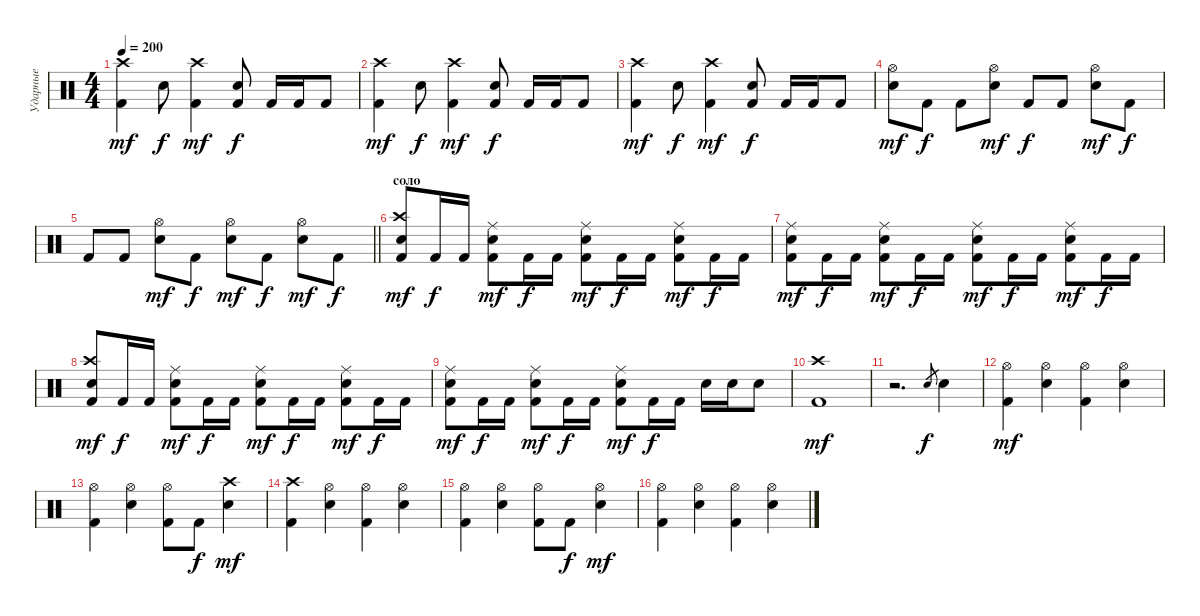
\track ("Ударные" "Ударные") {instrument percussion}
\staff {score}
\articulation defaults
\ts (4 4)
\tempo 200
\clef neutral
\ks c
("Kick (hit) 2" "Crash high (hit)").4{dy mf} "Electric Snare (hit)".8{dy f} ("Kick (hit) 2" "Crash high (hit)").4{dy mf} ("Kick (hit) 2" "Electric Snare (hit)").8{dy f} "Kick (hit) 2".16 "Kick (hit) 2".16 "Kick (hit) 2".8 |
("Kick (hit) 2" "Crash high (hit)").4{dy mf} "Electric Snare (hit)".8{dy f} ("Kick (hit) 2" "Crash high (hit)").4{dy mf} ("Kick (hit) 2" "Electric Snare (hit)").8{dy f} "Kick (hit) 2".16 "Kick (hit) 2".16 "Kick (hit) 2".8 |
("Kick (hit) 2" "Crash high (hit)").4{dy mf} "Electric Snare (hit)".8{dy f} ("Kick (hit) 2" "Crash high (hit)").4{dy mf} ("Kick (hit) 2" "Electric Snare (hit)").8{dy f} "Kick (hit) 2".16 "Kick (hit) 2".16 "Kick (hit) 2".8 |
("Electric Snare (hit)" "Hi-Hat (open)").8{dy mf} "Kick (hit) 2".8{dy f} "Kick (hit) 2".8 ("Electric Snare (hit)" "Hi-Hat (open)").8{dy mf} "Kick (hit) 2".8{dy f} "Kick (hit) 2".8 ("Electric Snare (hit)" "Hi-Hat (open)").8{dy mf} "Kick (hit) 2".8{dy f} |
\barLineRight lightlight "Kick (hit) 2".8 "Kick (hit) 2".8
("Electric Snare (hit)" "Hi-Hat (open)").8{dy mf} "Kick (hit) 2".8{dy f} ("Electric Snare (hit)" "Hi-Hat (open)").8{dy mf} "Kick (hit) 2".8{dy f} ("Electric Snare (hit)" "Hi-Hat (open)").8{dy mf} "Kick (hit) 2".8{dy f} |
\section ("" "соло")
("Kick (hit) 2" "Electric Snare (hit)" "Crash high (hit)").8{dy mf} "Kick (hit) 2".16{dy f} "Kick (hit) 2".16 ("Kick (hit) 2" "Electric Snare (hit)" "Ride (middle)").8{dy mf} "Kick (hit) 2".16{dy f} "Kick (hit) 2".16 ("Kick (hit) 2" "Electric Snare (hit)" "Ride (middle)").8{dy mf} "Kick (hit) 2".16{dy f} "Kick (hit) 2".16 ("Kick (hit) 2" "Electric Snare (hit)" "Ride (middle)").8{dy mf} "Kick (hit) 2".16{dy f} "Kick (hit) 2".16 |
("Kick (hit) 2" "Electric Snare (hit)" "Ride (middle)").8{dy mf} "Kick (hit) 2".16{dy f} "Kick (hit) 2".16 ("Kick (hit) 2" "Electric Snare (hit)" "Ride (middle)").8{dy mf} "Kick (hit) 2".16{dy f} "Kick (hit) 2".16 ("Kick (hit) 2" "Electric Snare (hit)" "Ride (middle)").8{dy mf} "Kick (hit) 2".16{dy f} "Kick (hit) 2".16 ("Kick (hit) 2" "Electric Snare (hit)" "Ride (middle)").8{dy mf} "Kick (hit) 2".16{dy f} "Kick (hit) 2".16 |
("Kick (hit) 2" "Electric Snare (hit)" "Crash high (hit)").8{dy mf} "Kick (hit) 2".16{dy f} "Kick (hit) 2".16 ("Kick (hit) 2" "Electric Snare (hit)" "Ride (middle)").8{dy mf} "Kick (hit) 2".16{dy f} "Kick (hit) 2".16 ("Kick (hit) 2" "Electric Snare (hit)" "Ride (middle)").8{dy mf} "Kick (hit) 2".16{dy f} "Kick (hit) 2".16 ("Kick (hit) 2" "Electric Snare (hit)" "Ride (middle)").8{dy mf} "Kick (hit) 2".16{dy f} "Kick (hit) 2".16 |
("Kick (hit) 2" "Electric Snare (hit)" "Ride (middle)").8{dy mf} "Kick (hit) 2".16{dy f} "Kick (hit) 2".16 ("Kick (hit) 2" "Electric Snare (hit)" "Ride (middle)").8{dy mf} "Kick (hit) 2".16{dy f} "Kick (hit) 2".16 ("Kick (hit) 2" "Electric Snare (hit)" "Ride (middle)").8{dy mf} "Kick (hit) 2".16{dy f} "Kick (hit) 2".16 "Electric Snare (hit)".16 "Electric Snare (hit)".16 "Electric Snare (hit)".8 |
("Kick (hit) 2" "Crash high (hit)").1{dy mf} |
r.2{d} "Electric Snare (hit)".8{gr dy f} "Electric Snare (hit)".4 |
("Kick (hit) 2" "Hi-Hat (open)").4{dy mf} ("Electric Snare (hit)" "Hi-Hat (open)").4 ("Kick (hit) 2" "Hi-Hat (open)").4 ("Electric Snare (hit)" "Hi-Hat (open)").4 |
("Kick (hit) 2" "Hi-Hat (open)").4 ("Electric Snare (hit)" "Hi-Hat (open)").4 ("Kick (hit) 2" "Hi-Hat (open)").8 "Kick (hit) 2".8{dy f} ("Electric Snare (hit)" "Crash high (hit)").4{dy mf} |
("Kick (hit) 2" "Crash high (hit)").4 ("Electric Snare (hit)" "Hi-Hat (open)").4 ("Kick (hit) 2" "Hi-Hat (open)").4 ("Electric Snare (hit)" "Hi-Hat (open)").4 |
("Kick (hit) 2" "Hi-Hat (open)").4 ("Electric Snare (hit)" "Hi-Hat (open)").4 ("Kick (hit) 2" "Hi-Hat (open)").8 "Kick (hit) 2".8{dy f} ("Electric Snare (hit)" "Hi-Hat (open)").4{dy mf} |
("Kick (hit) 2" "Hi-Hat (open)").4 ("Electric Snare (hit)" "Hi-Hat (open)").4 ("Kick (hit) 2" "Hi-Hat (open)").4 ("Electric Snare (hit)" "Hi-Hat (open)").4
